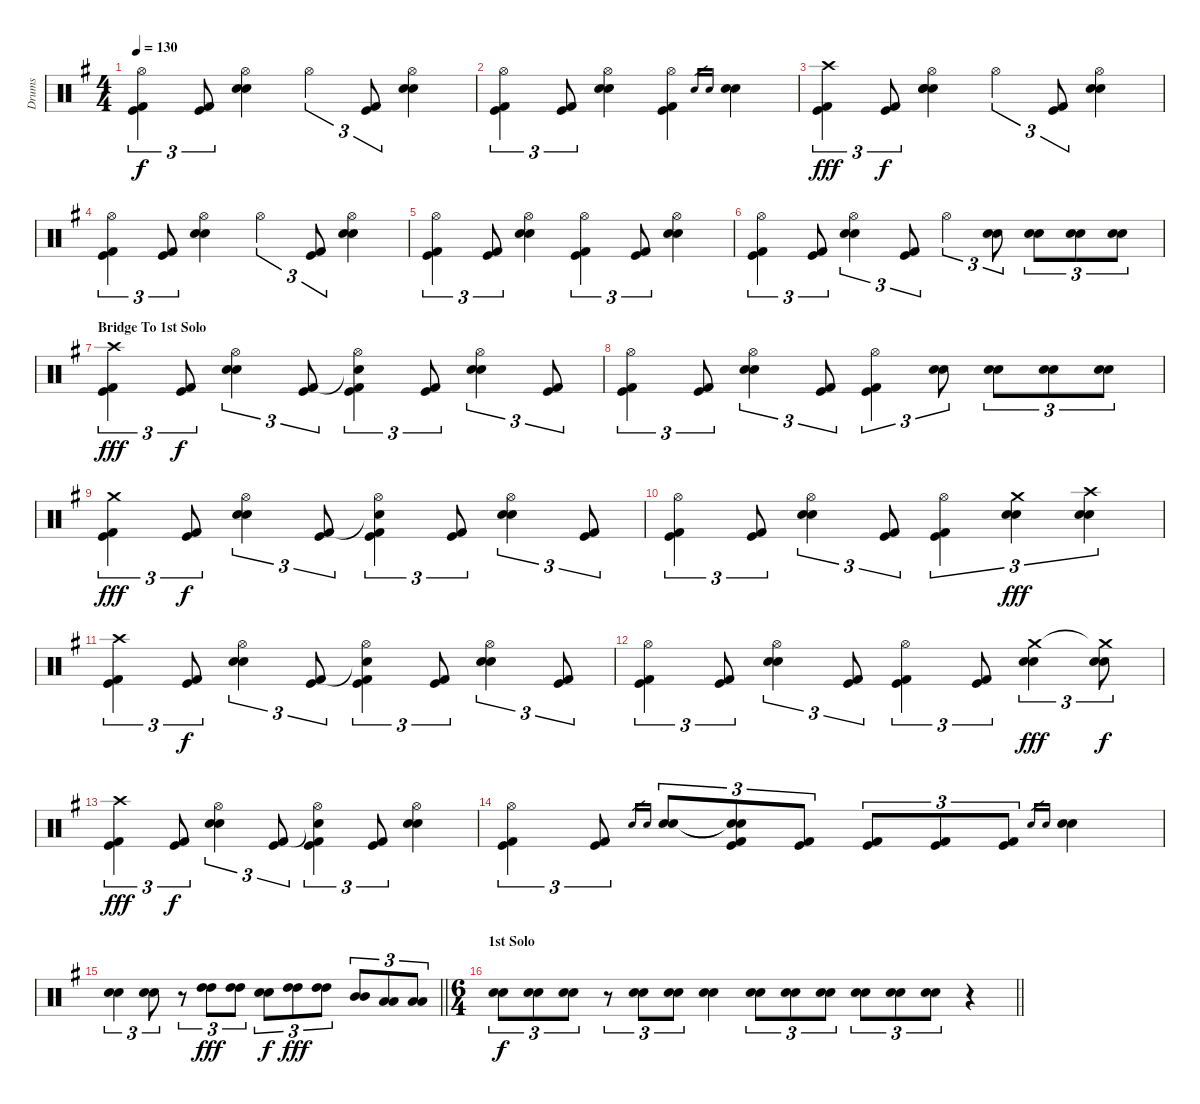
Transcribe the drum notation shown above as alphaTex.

\track ("Drums" "Drums") {instrument percussion}
\staff {score}
\articulation defaults
\ts (4 4)
\tempo 130
\clef neutral
\ks g
("Hi-Hat (open)" "Kick (hit)" "Kick (hit) 2").4{tu (3 2) dy f} ("Kick (hit)" "Kick (hit) 2").8{tu (3 2)} ("Hi-Hat (open)" "Electric Snare (hit)" "Snare (hit) 2").4 "Hi-Hat (open)".4{tu (3 2)} ("Kick (hit)" "Kick (hit) 2").8{tu (3 2)} ("Hi-Hat (open)" "Electric Snare (hit)" "Snare (hit) 2").4 |
("Hi-Hat (open)" "Kick (hit)" "Kick (hit) 2").4{tu (3 2)} ("Kick (hit)" "Kick (hit) 2").8{tu (3 2)} ("Hi-Hat (open)" "Electric Snare (hit)" "Snare (hit) 2").4 ("Hi-Hat (open)" "Kick (hit)" "Kick (hit) 2").4 "Electric Snare (hit)".16{gr} "Snare (hit) 2".16{gr} ("Electric Snare (hit)" "Snare (hit) 2").4 |
("Crash high (hit)" "Kick (hit)" "Kick (hit) 2").4{tu (3 2) dy fff} ("Kick (hit)" "Kick (hit) 2").8{tu (3 2) dy f} ("Hi-Hat (open)" "Electric Snare (hit)" "Snare (hit) 2" "Snare (hit)"{t}).4 "Hi-Hat (open)".4{tu (3 2)} ("Kick (hit)" "Kick (hit) 2").8{tu (3 2)} ("Hi-Hat (open)" "Electric Snare (hit)" "Snare (hit) 2").4 |
("Hi-Hat (open)" "Kick (hit)" "Kick (hit) 2").4{tu (3 2)} ("Kick (hit)" "Kick (hit) 2").8{tu (3 2)} ("Hi-Hat (open)" "Electric Snare (hit)" "Snare (hit) 2").4 "Hi-Hat (open)".4{tu (3 2)} ("Kick (hit)" "Kick (hit) 2").8{tu (3 2)} ("Hi-Hat (open)" "Electric Snare (hit)" "Snare (hit) 2").4 |
("Hi-Hat (open)" "Kick (hit)" "Kick (hit) 2").4{tu (3 2)} ("Kick (hit)" "Kick (hit) 2").8{tu (3 2)} ("Hi-Hat (open)" "Electric Snare (hit)" "Snare (hit) 2").4 ("Hi-Hat (open)" "Kick (hit)" "Kick (hit) 2").4{tu (3 2)} ("Kick (hit)" "Kick (hit) 2").8{tu (3 2)} ("Hi-Hat (open)" "Electric Snare (hit)" "Snare (hit) 2").4 |
("Hi-Hat (open)" "Kick (hit)" "Kick (hit) 2").4{tu (3 2)} ("Kick (hit)" "Kick (hit) 2").8{tu (3 2)} ("Hi-Hat (open)" "Electric Snare (hit)" "Snare (hit) 2").4{tu (3 2)} ("Kick (hit)" "Kick (hit) 2").8{tu (3 2)} "Hi-Hat (open)".4{tu (3 2)} ("Electric Snare (hit)" "Snare (hit) 2").8{tu (3 2)} ("Electric Snare (hit)" "Snare (hit) 2").8{tu (3 2)} ("Electric Snare (hit)" "Snare (hit) 2").8{tu (3 2)} ("Electric Snare (hit)" "Snare (hit) 2").8{tu (3 2)} |
\section ("" "Bridge To 1st Solo")
("Crash high (hit)" "Kick (hit)" "Kick (hit) 2").4{tu (3 2) dy fff} ("Kick (hit)" "Kick (hit) 2").8{tu (3 2) dy f} ("Hi-Hat (open)" "Electric Snare (hit)" "Snare (hit) 2").4{tu (3 2)} ("Kick (hit)" "Kick (hit) 2").8{tu (3 2)} ("Hi-Hat (open)" "Snare (hit)"{t} "Kick (hit)" "Kick (hit) 2").4{tu (3 2)} ("Kick (hit)" "Kick (hit) 2").8{tu (3 2)} ("Hi-Hat (open)" "Electric Snare (hit)" "Snare (hit) 2").4{tu (3 2)} ("Kick (hit)" "Kick (hit) 2").8{tu (3 2)} |
("Hi-Hat (open)" "Kick (hit)" "Kick (hit) 2").4{tu (3 2)} ("Kick (hit)" "Kick (hit) 2").8{tu (3 2)} ("Hi-Hat (open)" "Electric Snare (hit)" "Snare (hit) 2").4{tu (3 2)} ("Kick (hit)" "Kick (hit) 2").8{tu (3 2)} ("Hi-Hat (open)" "Kick (hit)" "Kick (hit) 2").4{tu (3 2)} ("Electric Snare (hit)" "Snare (hit) 2").8{tu (3 2)} ("Electric Snare (hit)" "Snare (hit) 2").8{tu (3 2)} ("Electric Snare (hit)" "Snare (hit) 2").8{tu (3 2)} ("Electric Snare (hit)" "Snare (hit) 2").8{tu (3 2)} |
("Crash medium (hit)" "Kick (hit)" "Kick (hit) 2").4{tu (3 2) dy fff} ("Kick (hit)" "Kick (hit) 2").8{tu (3 2) dy f} ("Hi-Hat (open)" "Electric Snare (hit)" "Snare (hit) 2").4{tu (3 2)} ("Kick (hit)" "Kick (hit) 2").8{tu (3 2)} ("Hi-Hat (open)" "Snare (hit)"{t} "Kick (hit)" "Kick (hit) 2").4{tu (3 2)} ("Kick (hit)" "Kick (hit) 2").8{tu (3 2)} ("Hi-Hat (open)" "Electric Snare (hit)" "Snare (hit) 2").4{tu (3 2)} ("Kick (hit)" "Kick (hit) 2").8{tu (3 2)} |
("Hi-Hat (open)" "Kick (hit)" "Kick (hit) 2").4{tu (3 2)} ("Kick (hit)" "Kick (hit) 2").8{tu (3 2)} ("Hi-Hat (open)" "Electric Snare (hit)" "Snare (hit) 2").4{tu (3 2)} ("Kick (hit)" "Kick (hit) 2").8{tu (3 2)} ("Hi-Hat (open)" "Kick (hit)" "Kick (hit) 2").4{tu (3 2)} ("Electric Snare (hit)" "Snare (hit) 2" "Crash medium (hit)").4{tu (3 2) dy fff} ("Electric Snare (hit)" "Snare (hit) 2" "Crash high (hit)").4{tu (3 2)} |
("Crash high (hit)" "Kick (hit)" "Kick (hit) 2").4{tu (3 2)} ("Kick (hit)" "Kick (hit) 2").8{tu (3 2) dy f} ("Hi-Hat (open)" "Electric Snare (hit)" "Snare (hit) 2").4{tu (3 2)} ("Kick (hit)" "Kick (hit) 2").8{tu (3 2)} ("Hi-Hat (open)" "Snare (hit)"{t} "Kick (hit)" "Kick (hit) 2").4{tu (3 2)} ("Kick (hit)" "Kick (hit) 2").8{tu (3 2)} ("Hi-Hat (open)" "Electric Snare (hit)" "Snare (hit) 2").4{tu (3 2)} ("Kick (hit)" "Kick (hit) 2").8{tu (3 2)} |
("Hi-Hat (open)" "Kick (hit)" "Kick (hit) 2").4{tu (3 2)} ("Kick (hit)" "Kick (hit) 2").8{tu (3 2)} ("Hi-Hat (open)" "Electric Snare (hit)" "Snare (hit) 2").4{tu (3 2)} ("Kick (hit)" "Kick (hit) 2").8{tu (3 2)} ("Hi-Hat (open)" "Kick (hit)" "Kick (hit) 2").4{tu (3 2)} ("Kick (hit)" "Kick (hit) 2").8{tu (3 2)} ("Electric Snare (hit)" "Snare (hit) 2" "Crash medium (hit)").4{tu (3 2) dy fff} ("Electric Snare (hit)" "Snare (hit) 2" "Crash medium (hit)"{t}).8{tu (3 2) dy f} |
("Crash high (hit)" "Kick (hit)" "Kick (hit) 2").4{tu (3 2) dy fff} ("Kick (hit)" "Kick (hit) 2").8{tu (3 2) dy f} ("Hi-Hat (open)" "Electric Snare (hit)" "Snare (hit) 2").4{tu (3 2)} ("Kick (hit)" "Kick (hit) 2").8{tu (3 2)} ("Hi-Hat (open)" "Snare (hit)"{t} "Kick (hit)" "Kick (hit) 2").4{tu (3 2)} ("Kick (hit)" "Kick (hit) 2").8{tu (3 2)} ("Hi-Hat (open)" "Electric Snare (hit)" "Snare (hit) 2").4 |
("Hi-Hat (open)" "Kick (hit)" "Kick (hit) 2").4{tu (3 2)} ("Kick (hit)" "Kick (hit) 2").8{tu (3 2)} "Electric Snare (hit)".16{gr} "Snare (hit) 2".16{gr} ("Electric Snare (hit)" "Snare (hit) 2").8{tu (3 2)} ("Snare (hit)"{t} "Snare (hit)"{t} "Kick (hit)" "Kick (hit) 2").8{tu (3 2)} ("Kick (hit)" "Kick (hit) 2").8{tu (3 2)} ("Kick (hit)" "Kick (hit) 2").8{tu (3 2)} ("Kick (hit)" "Kick (hit) 2").8{tu (3 2)} ("Kick (hit)" "Kick (hit) 2").8{tu (3 2)} "Electric Snare (hit)".16{gr} "Snare (hit) 2".16{gr} ("Electric Snare (hit)" "Snare (hit) 2").4 |
\barLineRight lightlight
("Electric Snare (hit)" "Snare (hit) 2").4{tu (3 2)} ("Electric Snare (hit)" "Snare (hit) 2").8{tu (3 2)} r.8{tu (3 2)} ("High Tom (hit)" "High Tom (hit)").8{tu (3 2) dy fff} ("High Tom (hit)" "High Tom (hit)").8{tu (3 2)} ("Electric Snare (hit)" "Snare (hit) 2").8{tu (3 2) dy f} ("High Tom (hit)" "High Tom (hit)").8{tu (3 2) dy fff} ("High Tom (hit)" "High Tom (hit)").8{tu (3 2)} ("Mid Tom (hit)" "Mid Tom (hit)").8{tu (3 2)} ("Low Tom (hit)" "Low Tom (hit)").8{tu (3 2)} ("Low Tom (hit)" "Low Tom (hit)").8{tu (3 2)} |
\ts (6 4)
\section ("" "1st Solo")
\barLineRight lightlight
("Electric Snare (hit)" "Snare (hit) 2").8{tu (3 2) dy f} ("Electric Snare (hit)" "Snare (hit) 2").8{tu (3 2)} ("Electric Snare (hit)" "Snare (hit) 2").8{tu (3 2)} r.8{tu (3 2)} ("Electric Snare (hit)" "Snare (hit) 2").8{tu (3 2)} ("Electric Snare (hit)" "Snare (hit) 2").8{tu (3 2)} ("Electric Snare (hit)" "Snare (hit) 2").4 ("Electric Snare (hit)" "Snare (hit) 2").8{tu (3 2)} ("Electric Snare (hit)" "Snare (hit) 2").8{tu (3 2)} ("Electric Snare (hit)" "Snare (hit) 2").8{tu (3 2)} ("Electric Snare (hit)" "Snare (hit) 2").8{tu (3 2)} ("Electric Snare (hit)" "Snare (hit) 2").8{tu (3 2)} ("Electric Snare (hit)" "Snare (hit) 2").8{tu (3 2)} r.4
